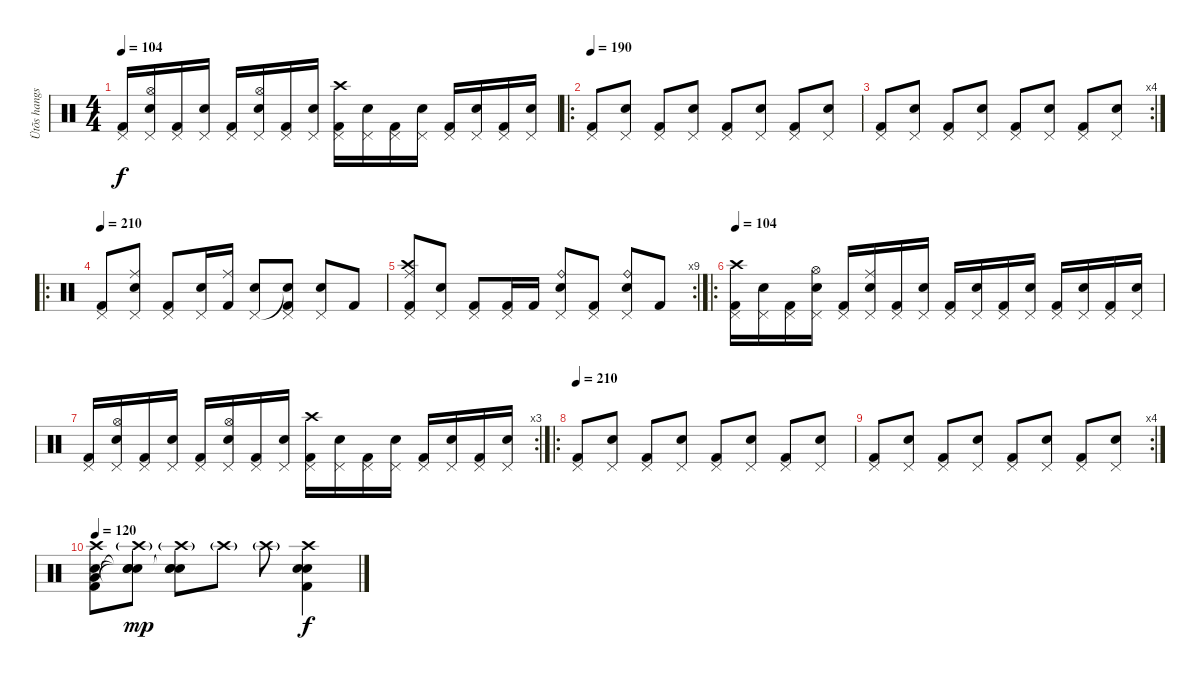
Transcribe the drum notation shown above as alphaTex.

\track ("Ütõs hangszer" "Ütõs hangs") {instrument percussion}
\staff {score}
\articulation defaults
\ts (4 4)
\tempo 104
\clef neutral
\ks c
("Pedal Hi-Hat (hit)" "Kick (hit) 2").16{dy f} ("Hi-Hat (open)" "Pedal Hi-Hat (hit)" "Snare (hit) 2").16 ("Pedal Hi-Hat (hit)" "Kick (hit) 2").16 ("Pedal Hi-Hat (hit)" "Snare (hit) 2").16 ("Pedal Hi-Hat (hit)" "Kick (hit) 2").16 ("Hi-Hat (open)" "Pedal Hi-Hat (hit)" "Snare (hit) 2").16 ("Pedal Hi-Hat (hit)" "Kick (hit) 2").16 ("Pedal Hi-Hat (hit)" "Snare (hit) 2").16 ("Crash high (hit)" "Pedal Hi-Hat (hit)" "Kick (hit) 2").16 ("Pedal Hi-Hat (hit)" "Snare (hit) 2").16 ("Pedal Hi-Hat (hit)" "Kick (hit) 2").16 ("Pedal Hi-Hat (hit)" "Snare (hit) 2").16 ("Pedal Hi-Hat (hit)" "Kick (hit) 2").16 ("Pedal Hi-Hat (hit)" "Snare (hit) 2").16 ("Pedal Hi-Hat (hit)" "Kick (hit) 2").16 ("Pedal Hi-Hat (hit)" "Snare (hit) 2").16 |
\ro
\tempo 190
("Pedal Hi-Hat (hit)" "Kick (hit) 2").8 ("Pedal Hi-Hat (hit)" "Snare (hit) 2").8 ("Pedal Hi-Hat (hit)" "Kick (hit) 2").8 ("Pedal Hi-Hat (hit)" "Snare (hit) 2").8 ("Pedal Hi-Hat (hit)" "Kick (hit) 2").8 ("Pedal Hi-Hat (hit)" "Snare (hit) 2").8 ("Pedal Hi-Hat (hit)" "Kick (hit) 2").8 ("Pedal Hi-Hat (hit)" "Snare (hit) 2").8 |
\rc 4
("Pedal Hi-Hat (hit)" "Kick (hit) 2").8 ("Pedal Hi-Hat (hit)" "Snare (hit) 2").8 ("Pedal Hi-Hat (hit)" "Kick (hit) 2").8 ("Pedal Hi-Hat (hit)" "Snare (hit) 2").8 ("Pedal Hi-Hat (hit)" "Kick (hit) 2").8 ("Pedal Hi-Hat (hit)" "Snare (hit) 2").8 ("Pedal Hi-Hat (hit)" "Kick (hit) 2").8 ("Pedal Hi-Hat (hit)" "Snare (hit) 2").8 |
\ro
\tempo 210
("Pedal Hi-Hat (hit)" "Kick (hit) 2").8 ("Ride (middle)" "Pedal Hi-Hat (hit)" "Snare (hit) 2").8 ("Pedal Hi-Hat (hit)" "Kick (hit) 2").8 ("Pedal Hi-Hat (hit)" "Snare (hit) 2").16 ("Ride (middle)" "Kick (hit) 2").16 ("Pedal Hi-Hat (hit)" "Snare (hit) 2").8 ("Snare (hit)"{t} "Pedal Hi-Hat (hit)" "Kick (hit) 2").8 ("Pedal Hi-Hat (hit)" "Snare (hit) 2").8 "Kick (hit) 2".8 |
\rc 9
("Ride (middle)" "Crash high (hit)" "Pedal Hi-Hat (hit)" "Kick (hit) 2").8 ("Pedal Hi-Hat (hit)" "Snare (hit) 2").8 ("Pedal Hi-Hat (hit)" "Kick (hit) 2").8 ("Pedal Hi-Hat (hit)" "Kick (hit) 2").16 "Kick (hit) 2".16 ("Ride (bell)" "Pedal Hi-Hat (hit)" "Snare (hit) 2").8 ("Pedal Hi-Hat (hit)" "Kick (hit) 2").8 ("Ride (bell)" "Pedal Hi-Hat (hit)" "Snare (hit) 2").8 "Kick (hit) 2".8 |
\ro
\tempo 104
("Crash high (hit)" "Pedal Hi-Hat (hit)" "Kick (hit) 2").16 ("Pedal Hi-Hat (hit)" "Snare (hit) 2").16 ("Pedal Hi-Hat (hit)" "Kick (hit) 2").16 ("Hi-Hat (open)" "Pedal Hi-Hat (hit)" "Snare (hit) 2").16 ("Pedal Hi-Hat (hit)" "Kick (hit) 2").16 ("Ride (middle)" "Pedal Hi-Hat (hit)" "Snare (hit) 2").16 ("Pedal Hi-Hat (hit)" "Kick (hit) 2").16 ("Pedal Hi-Hat (hit)" "Snare (hit) 2").16 ("Pedal Hi-Hat (hit)" "Kick (hit) 2").16 ("Pedal Hi-Hat (hit)" "Snare (hit) 2").16 ("Pedal Hi-Hat (hit)" "Kick (hit) 2").16 ("Pedal Hi-Hat (hit)" "Snare (hit) 2").16 ("Pedal Hi-Hat (hit)" "Kick (hit) 2").16 ("Pedal Hi-Hat (hit)" "Snare (hit) 2").16 ("Pedal Hi-Hat (hit)" "Kick (hit) 2").16 ("Pedal Hi-Hat (hit)" "Snare (hit) 2").16 |
\rc 3
("Pedal Hi-Hat (hit)" "Kick (hit) 2").16 ("Hi-Hat (open)" "Pedal Hi-Hat (hit)" "Snare (hit) 2").16 ("Pedal Hi-Hat (hit)" "Kick (hit) 2").16 ("Pedal Hi-Hat (hit)" "Snare (hit) 2").16 ("Pedal Hi-Hat (hit)" "Kick (hit) 2").16 ("Hi-Hat (open)" "Pedal Hi-Hat (hit)" "Snare (hit) 2").16 ("Pedal Hi-Hat (hit)" "Kick (hit) 2").16 ("Pedal Hi-Hat (hit)" "Snare (hit) 2").16 ("Crash high (hit)" "Pedal Hi-Hat (hit)" "Kick (hit) 2").16 ("Pedal Hi-Hat (hit)" "Snare (hit) 2").16 ("Pedal Hi-Hat (hit)" "Kick (hit) 2").16 ("Pedal Hi-Hat (hit)" "Snare (hit) 2").16 ("Pedal Hi-Hat (hit)" "Kick (hit) 2").16 ("Pedal Hi-Hat (hit)" "Snare (hit) 2").16 ("Pedal Hi-Hat (hit)" "Kick (hit) 2").16 ("Pedal Hi-Hat (hit)" "Snare (hit) 2").16 |
\ro
\tempo 210
("Pedal Hi-Hat (hit)" "Kick (hit) 2").8 ("Pedal Hi-Hat (hit)" "Snare (hit) 2").8 ("Pedal Hi-Hat (hit)" "Kick (hit) 2").8 ("Pedal Hi-Hat (hit)" "Snare (hit) 2").8 ("Pedal Hi-Hat (hit)" "Kick (hit) 2").8 ("Pedal Hi-Hat (hit)" "Snare (hit) 2").8 ("Pedal Hi-Hat (hit)" "Kick (hit) 2").8 ("Pedal Hi-Hat (hit)" "Snare (hit) 2").8 |
\rc 4
("Pedal Hi-Hat (hit)" "Kick (hit) 2").8 ("Pedal Hi-Hat (hit)" "Snare (hit) 2").8 ("Pedal Hi-Hat (hit)" "Kick (hit) 2").8 ("Pedal Hi-Hat (hit)" "Snare (hit) 2").8 ("Pedal Hi-Hat (hit)" "Kick (hit) 2").8 ("Pedal Hi-Hat (hit)" "Snare (hit) 2").8 ("Pedal Hi-Hat (hit)" "Kick (hit) 2").8 ("Pedal Hi-Hat (hit)" "Snare (hit) 2").8 |
\tempo 120
("Crash high (hit)" "Low Tom (hit)" "Kick (hit) 2" "Snare (hit) 2").8 ("Crash high (hit)"{g} "Snare (hit)"{t} "Snare (hit)"{t} "Snare (hit)"{t}).8{dy mp} ("Crash high (hit)"{g} "Snare (hit)"{t} "Snare (hit)"{t} "Snare (hit)"{t}).8 "Crash high (hit)"{g}.8 "Crash high (hit)"{g}.8 ("Crash high (hit)" "Snare (hit) 2" "Snare (hit) 2" "Kick (hit) 2").4{dy f}
